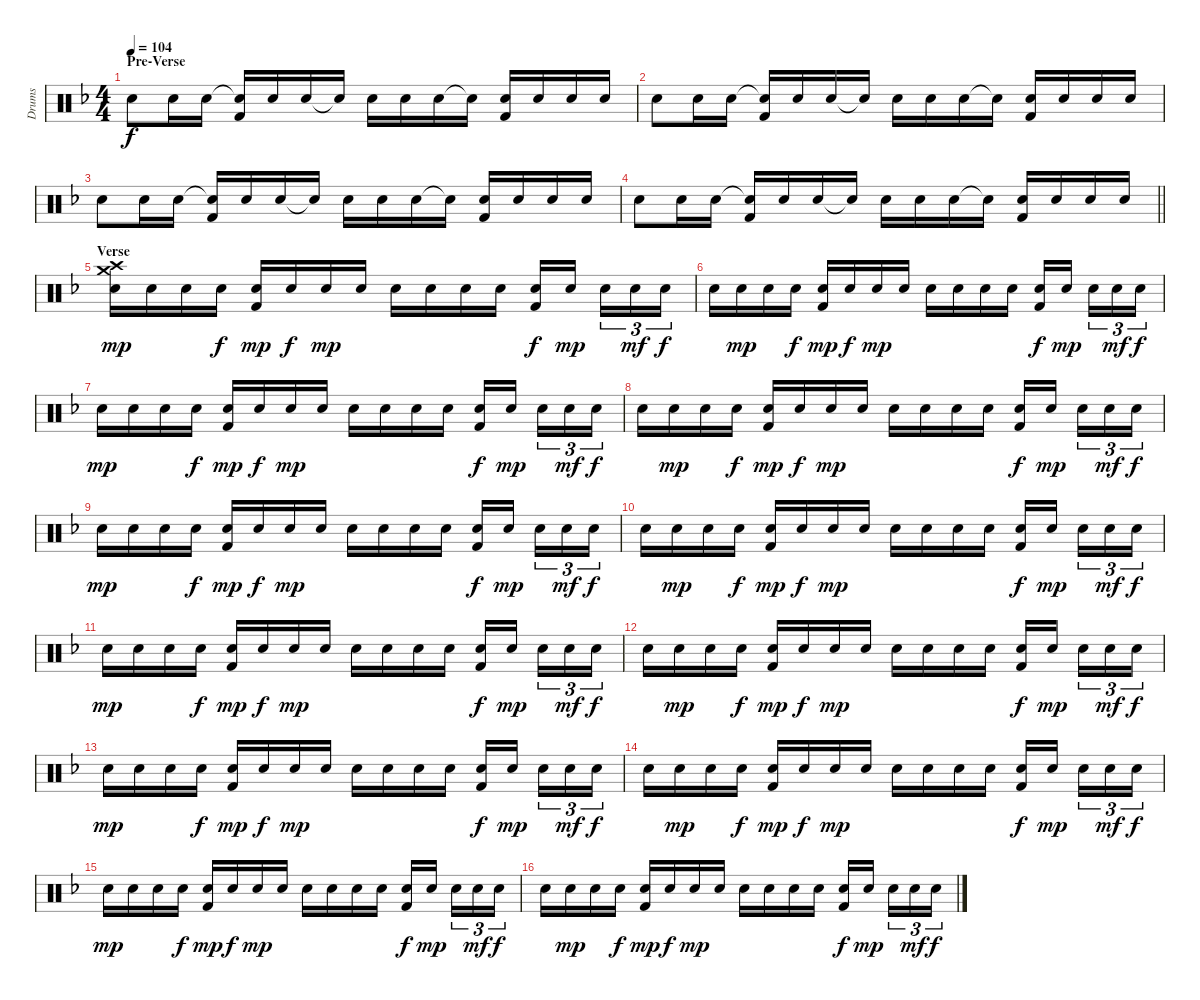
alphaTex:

\track ("Drums" "Drums") {instrument percussion}
\staff {score}
\articulation defaults
\ts (4 4)
\section ("" "Pre-Verse")
\tempo 104
\clef neutral
\ks dminor "Snare (hit) 2".8{dy f} "Snare (hit) 2".16 "Snare (hit) 2".16
("Snare (hit)"{t} "Kick (hit) 2").16 "Snare (hit) 2".16 "Snare (hit) 2".16 "Snare (hit)"{t}.16 "Snare (hit) 2".16 "Snare (hit) 2".16 "Snare (hit) 2".16 "Snare (hit) 2"{t}.16 ("Snare (hit) 2" "Kick (hit) 2").16 "Snare (hit) 2".16 "Snare (hit) 2".16 "Snare (hit) 2".16 |
"Snare (hit) 2".8 "Snare (hit) 2".16 "Snare (hit) 2".16 ("Snare (hit)"{t} "Kick (hit) 2").16 "Snare (hit) 2".16 "Snare (hit) 2".16 "Snare (hit)"{t}.16 "Snare (hit) 2".16 "Snare (hit) 2".16 "Snare (hit) 2".16 "Snare (hit) 2"{t}.16 ("Snare (hit) 2" "Kick (hit) 2").16 "Snare (hit) 2".16 "Snare (hit) 2".16 "Snare (hit) 2".16 |
"Snare (hit) 2".8 "Snare (hit) 2".16 "Snare (hit) 2".16 ("Snare (hit)"{t} "Kick (hit) 2").16 "Snare (hit) 2".16 "Snare (hit) 2".16 "Snare (hit)"{t}.16 "Snare (hit) 2".16 "Snare (hit) 2".16 "Snare (hit) 2".16 "Snare (hit) 2"{t}.16 ("Snare (hit) 2" "Kick (hit) 2").16 "Snare (hit) 2".16 "Snare (hit) 2".16 "Snare (hit) 2".16 |
\barLineRight lightlight "Snare (hit) 2".8 "Snare (hit) 2".16 "Snare (hit) 2".16
("Snare (hit)"{t} "Kick (hit) 2").16 "Snare (hit) 2".16 "Snare (hit) 2".16 "Snare (hit)"{t}.16 "Snare (hit) 2".16 "Snare (hit) 2".16 "Snare (hit) 2".16 "Snare (hit) 2"{t}.16 ("Snare (hit) 2" "Kick (hit) 2").16 "Snare (hit) 2".16 "Snare (hit) 2".16 "Snare (hit) 2".16 |
\section ("" "Verse")
("Crash medium (hit)" "Crash high (hit)" "Snare (hit) 2").16{dy mp} "Snare (hit) 2".16 "Snare (hit) 2".16 "Snare (hit) 2".16{dy f} ("Snare (hit) 2" "Kick (hit) 2").16{dy mp} "Snare (hit) 2".16{dy f} "Snare (hit) 2".16{dy mp} "Snare (hit) 2".16 "Snare (hit) 2".16 "Snare (hit) 2".16 "Snare (hit) 2".16 "Snare (hit) 2".16 ("Snare (hit) 2" "Kick (hit) 2").16{dy f} "Snare (hit) 2".16{dy mp beam splitsecondary} "Snare (hit) 2".16{tu (3 2)} "Snare (hit) 2".16{tu (3 2) dy mf} "Snare (hit) 2".16{tu (3 2) dy f} |
"Snare (hit) 2".16 "Snare (hit) 2".16{dy mp} "Snare (hit) 2".16 "Snare (hit) 2".16{dy f} ("Snare (hit) 2" "Kick (hit) 2").16{dy mp} "Snare (hit) 2".16{dy f} "Snare (hit) 2".16{dy mp} "Snare (hit) 2".16 "Snare (hit) 2".16 "Snare (hit) 2".16 "Snare (hit) 2".16 "Snare (hit) 2".16 ("Snare (hit) 2" "Kick (hit) 2").16{dy f} "Snare (hit) 2".16{dy mp beam splitsecondary} "Snare (hit) 2".16{tu (3 2)} "Snare (hit) 2".16{tu (3 2) dy mf} "Snare (hit) 2".16{tu (3 2) dy f} |
"Snare (hit) 2".16{dy mp} "Snare (hit) 2".16 "Snare (hit) 2".16 "Snare (hit) 2".16{dy f} ("Snare (hit) 2" "Kick (hit) 2").16{dy mp} "Snare (hit) 2".16{dy f} "Snare (hit) 2".16{dy mp} "Snare (hit) 2".16 "Snare (hit) 2".16 "Snare (hit) 2".16 "Snare (hit) 2".16 "Snare (hit) 2".16 ("Snare (hit) 2" "Kick (hit) 2").16{dy f} "Snare (hit) 2".16{dy mp beam splitsecondary} "Snare (hit) 2".16{tu (3 2)} "Snare (hit) 2".16{tu (3 2) dy mf} "Snare (hit) 2".16{tu (3 2) dy f} |
"Snare (hit) 2".16 "Snare (hit) 2".16{dy mp} "Snare (hit) 2".16 "Snare (hit) 2".16{dy f} ("Snare (hit) 2" "Kick (hit) 2").16{dy mp} "Snare (hit) 2".16{dy f} "Snare (hit) 2".16{dy mp} "Snare (hit) 2".16 "Snare (hit) 2".16 "Snare (hit) 2".16 "Snare (hit) 2".16 "Snare (hit) 2".16 ("Snare (hit) 2" "Kick (hit) 2").16{dy f} "Snare (hit) 2".16{dy mp beam splitsecondary} "Snare (hit) 2".16{tu (3 2)} "Snare (hit) 2".16{tu (3 2) dy mf} "Snare (hit) 2".16{tu (3 2) dy f} |
"Snare (hit) 2".16{dy mp} "Snare (hit) 2".16 "Snare (hit) 2".16 "Snare (hit) 2".16{dy f} ("Snare (hit) 2" "Kick (hit) 2").16{dy mp} "Snare (hit) 2".16{dy f} "Snare (hit) 2".16{dy mp} "Snare (hit) 2".16 "Snare (hit) 2".16 "Snare (hit) 2".16 "Snare (hit) 2".16 "Snare (hit) 2".16 ("Snare (hit) 2" "Kick (hit) 2").16{dy f} "Snare (hit) 2".16{dy mp beam splitsecondary} "Snare (hit) 2".16{tu (3 2)} "Snare (hit) 2".16{tu (3 2) dy mf} "Snare (hit) 2".16{tu (3 2) dy f} |
"Snare (hit) 2".16 "Snare (hit) 2".16{dy mp} "Snare (hit) 2".16 "Snare (hit) 2".16{dy f} ("Snare (hit) 2" "Kick (hit) 2").16{dy mp} "Snare (hit) 2".16{dy f} "Snare (hit) 2".16{dy mp} "Snare (hit) 2".16 "Snare (hit) 2".16 "Snare (hit) 2".16 "Snare (hit) 2".16 "Snare (hit) 2".16 ("Snare (hit) 2" "Kick (hit) 2").16{dy f} "Snare (hit) 2".16{dy mp beam splitsecondary} "Snare (hit) 2".16{tu (3 2)} "Snare (hit) 2".16{tu (3 2) dy mf} "Snare (hit) 2".16{tu (3 2) dy f} |
"Snare (hit) 2".16{dy mp} "Snare (hit) 2".16 "Snare (hit) 2".16 "Snare (hit) 2".16{dy f} ("Snare (hit) 2" "Kick (hit) 2").16{dy mp} "Snare (hit) 2".16{dy f} "Snare (hit) 2".16{dy mp} "Snare (hit) 2".16 "Snare (hit) 2".16 "Snare (hit) 2".16 "Snare (hit) 2".16 "Snare (hit) 2".16 ("Snare (hit) 2" "Kick (hit) 2").16{dy f} "Snare (hit) 2".16{dy mp beam splitsecondary} "Snare (hit) 2".16{tu (3 2)} "Snare (hit) 2".16{tu (3 2) dy mf} "Snare (hit) 2".16{tu (3 2) dy f} |
"Snare (hit) 2".16 "Snare (hit) 2".16{dy mp} "Snare (hit) 2".16 "Snare (hit) 2".16{dy f} ("Snare (hit) 2" "Kick (hit) 2").16{dy mp} "Snare (hit) 2".16{dy f} "Snare (hit) 2".16{dy mp} "Snare (hit) 2".16 "Snare (hit) 2".16 "Snare (hit) 2".16 "Snare (hit) 2".16 "Snare (hit) 2".16 ("Snare (hit) 2" "Kick (hit) 2").16{dy f} "Snare (hit) 2".16{dy mp beam splitsecondary} "Snare (hit) 2".16{tu (3 2)} "Snare (hit) 2".16{tu (3 2) dy mf} "Snare (hit) 2".16{tu (3 2) dy f} |
"Snare (hit) 2".16{dy mp} "Snare (hit) 2".16 "Snare (hit) 2".16 "Snare (hit) 2".16{dy f} ("Snare (hit) 2" "Kick (hit) 2").16{dy mp} "Snare (hit) 2".16{dy f} "Snare (hit) 2".16{dy mp} "Snare (hit) 2".16 "Snare (hit) 2".16 "Snare (hit) 2".16 "Snare (hit) 2".16 "Snare (hit) 2".16 ("Snare (hit) 2" "Kick (hit) 2").16{dy f} "Snare (hit) 2".16{dy mp beam splitsecondary} "Snare (hit) 2".16{tu (3 2)} "Snare (hit) 2".16{tu (3 2) dy mf} "Snare (hit) 2".16{tu (3 2) dy f} |
"Snare (hit) 2".16 "Snare (hit) 2".16{dy mp} "Snare (hit) 2".16 "Snare (hit) 2".16{dy f} ("Snare (hit) 2" "Kick (hit) 2").16{dy mp} "Snare (hit) 2".16{dy f} "Snare (hit) 2".16{dy mp} "Snare (hit) 2".16 "Snare (hit) 2".16 "Snare (hit) 2".16 "Snare (hit) 2".16 "Snare (hit) 2".16 ("Snare (hit) 2" "Kick (hit) 2").16{dy f} "Snare (hit) 2".16{dy mp beam splitsecondary} "Snare (hit) 2".16{tu (3 2)} "Snare (hit) 2".16{tu (3 2) dy mf} "Snare (hit) 2".16{tu (3 2) dy f} |
"Snare (hit) 2".16{dy mp} "Snare (hit) 2".16 "Snare (hit) 2".16 "Snare (hit) 2".16{dy f} ("Snare (hit) 2" "Kick (hit) 2").16{dy mp} "Snare (hit) 2".16{dy f} "Snare (hit) 2".16{dy mp} "Snare (hit) 2".16 "Snare (hit) 2".16 "Snare (hit) 2".16 "Snare (hit) 2".16 "Snare (hit) 2".16 ("Snare (hit) 2" "Kick (hit) 2").16{dy f} "Snare (hit) 2".16{dy mp beam splitsecondary} "Snare (hit) 2".16{tu (3 2)} "Snare (hit) 2".16{tu (3 2) dy mf} "Snare (hit) 2".16{tu (3 2) dy f} |
"Snare (hit) 2".16 "Snare (hit) 2".16{dy mp} "Snare (hit) 2".16 "Snare (hit) 2".16{dy f} ("Snare (hit) 2" "Kick (hit) 2").16{dy mp} "Snare (hit) 2".16{dy f} "Snare (hit) 2".16{dy mp} "Snare (hit) 2".16 "Snare (hit) 2".16 "Snare (hit) 2".16 "Snare (hit) 2".16 "Snare (hit) 2".16 ("Snare (hit) 2" "Kick (hit) 2").16{dy f} "Snare (hit) 2".16{dy mp beam splitsecondary} "Snare (hit) 2".16{tu (3 2)} "Snare (hit) 2".16{tu (3 2) dy mf} "Snare (hit) 2".16{tu (3 2) dy f}
